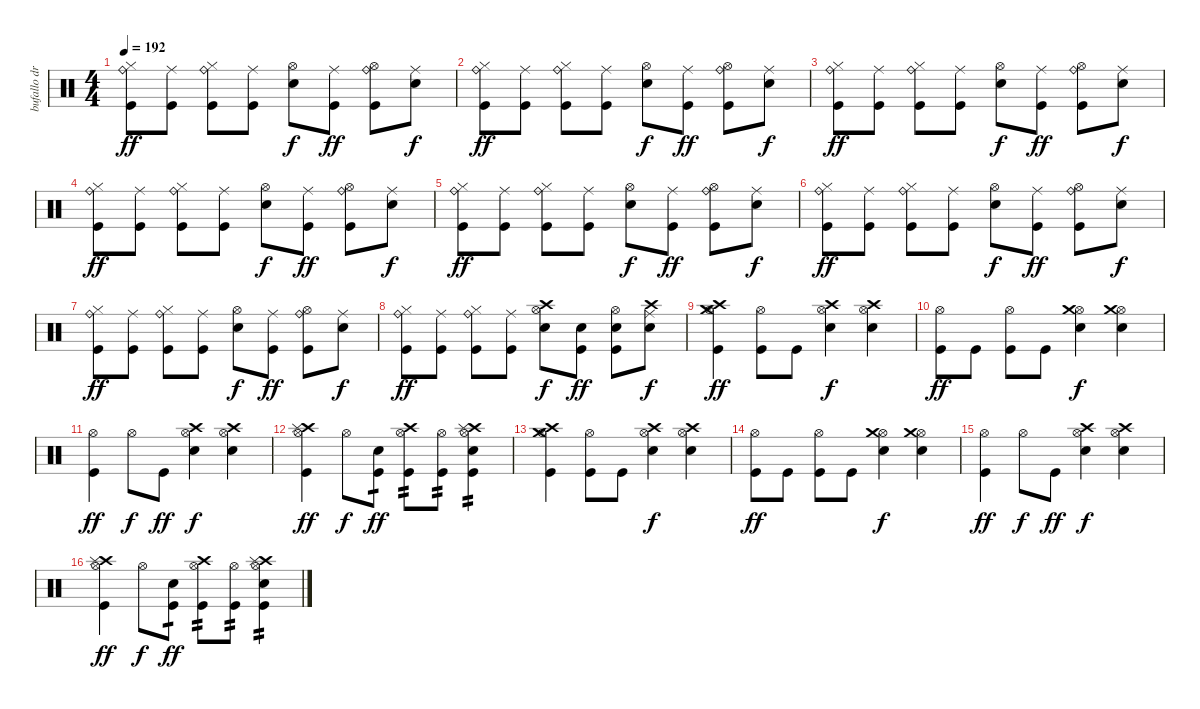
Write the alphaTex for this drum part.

\track ("bufallo drums" "bufallo dr") {instrument percussion}
\staff {score}
\articulation defaults
\ts (4 4)
\tempo 192
\clef neutral
\ks c
("Hi-Hat (closed)" "Ride (bell)" "Kick (hit)").8{dy ff} ("Ride (middle)" "Kick (hit)").8 ("Hi-Hat (closed)" "Ride (bell)" "Kick (hit)").8 ("Ride (middle)" "Kick (hit)").8 ("Hi-Hat (open)" "Electric Snare (hit)").8{dy f} ("Ride (middle)" "Kick (hit)").8{dy ff} ("Hi-Hat (open)" "Ride (bell)" "Kick (hit)").8 ("Ride (middle)" "Electric Snare (hit)").8{dy f} |
("Hi-Hat (closed)" "Ride (bell)" "Kick (hit)").8{dy ff} ("Ride (middle)" "Kick (hit)").8 ("Hi-Hat (closed)" "Ride (bell)" "Kick (hit)").8 ("Ride (middle)" "Kick (hit)").8 ("Hi-Hat (open)" "Electric Snare (hit)").8{dy f} ("Ride (middle)" "Kick (hit)").8{dy ff} ("Hi-Hat (open)" "Ride (bell)" "Kick (hit)").8 ("Ride (middle)" "Electric Snare (hit)").8{dy f} |
("Hi-Hat (closed)" "Ride (bell)" "Kick (hit)").8{dy ff} ("Ride (middle)" "Kick (hit)").8 ("Hi-Hat (closed)" "Ride (bell)" "Kick (hit)").8 ("Ride (middle)" "Kick (hit)").8 ("Hi-Hat (open)" "Electric Snare (hit)").8{dy f} ("Ride (middle)" "Kick (hit)").8{dy ff} ("Hi-Hat (open)" "Ride (bell)" "Kick (hit)").8 ("Ride (middle)" "Electric Snare (hit)").8{dy f} |
("Hi-Hat (closed)" "Ride (bell)" "Kick (hit)").8{dy ff} ("Ride (middle)" "Kick (hit)").8 ("Hi-Hat (closed)" "Ride (bell)" "Kick (hit)").8 ("Ride (middle)" "Kick (hit)").8 ("Hi-Hat (open)" "Electric Snare (hit)").8{dy f} ("Ride (middle)" "Kick (hit)").8{dy ff} ("Hi-Hat (open)" "Ride (bell)" "Kick (hit)").8 ("Ride (middle)" "Electric Snare (hit)").8{dy f} |
("Hi-Hat (closed)" "Ride (bell)" "Kick (hit)").8{dy ff} ("Ride (middle)" "Kick (hit)").8 ("Hi-Hat (closed)" "Ride (bell)" "Kick (hit)").8 ("Ride (middle)" "Kick (hit)").8 ("Hi-Hat (open)" "Electric Snare (hit)").8{dy f} ("Ride (middle)" "Kick (hit)").8{dy ff} ("Hi-Hat (open)" "Ride (bell)" "Kick (hit)").8 ("Ride (middle)" "Electric Snare (hit)").8{dy f} |
("Hi-Hat (closed)" "Ride (bell)" "Kick (hit)").8{dy ff} ("Ride (middle)" "Kick (hit)").8 ("Hi-Hat (closed)" "Ride (bell)" "Kick (hit)").8 ("Ride (middle)" "Kick (hit)").8 ("Hi-Hat (open)" "Electric Snare (hit)").8{dy f} ("Ride (middle)" "Kick (hit)").8{dy ff} ("Hi-Hat (open)" "Ride (bell)" "Kick (hit)").8 ("Ride (middle)" "Electric Snare (hit)").8{dy f} |
("Hi-Hat (closed)" "Ride (bell)" "Kick (hit)").8{dy ff} ("Ride (middle)" "Kick (hit)").8 ("Hi-Hat (closed)" "Ride (bell)" "Kick (hit)").8 ("Ride (middle)" "Kick (hit)").8 ("Hi-Hat (open)" "Electric Snare (hit)").8{dy f} ("Ride (middle)" "Kick (hit)").8{dy ff} ("Hi-Hat (open)" "Ride (bell)" "Kick (hit)").8 ("Ride (middle)" "Electric Snare (hit)").8{dy f} |
("Hi-Hat (closed)" "Ride (bell)" "Kick (hit)").8{dy ff} ("Ride (middle)" "Kick (hit)").8 ("Hi-Hat (closed)" "Ride (bell)" "Kick (hit)").8 ("Ride (middle)" "Kick (hit)").8 ("Hi-Hat (open)" "Electric Snare (hit)" "Crash high (hit)").8{dy f} ("Electric Snare (hit)" "Kick (hit)").8{dy ff} ("Hi-Hat (open)" "Electric Snare (hit)" "Kick (hit)").8 ("Ride (middle)" "Electric Snare (hit)" "Crash high (hit)").8{dy f} |
("Hi-Hat (open)" "Crash medium (hit)" "Crash high (hit)" "Kick (hit)").4{dy ff} ("Hi-Hat (open)" "Kick (hit)").8 "Kick (hit)".8 ("Hi-Hat (open)" "Electric Snare (hit)" "Crash high (hit)").4{dy f} ("Hi-Hat (open)" "Electric Snare (hit)" "Crash high (hit)").4 |
("Hi-Hat (open)" "Kick (hit)").8{dy ff} "Kick (hit)".8 ("Hi-Hat (open)" "Kick (hit)").8 "Kick (hit)".8 ("Hi-Hat (open)" "Electric Snare (hit)" "Crash medium (hit)").4{dy f} ("Hi-Hat (open)" "Electric Snare (hit)" "Crash medium (hit)").4 |
("Hi-Hat (open)" "Kick (hit)").4{dy ff} "Hi-Hat (open)".8{dy f} "Kick (hit)".8{dy ff} ("Hi-Hat (open)" "Electric Snare (hit)" "Crash high (hit)").4{dy f} ("Hi-Hat (open)" "Electric Snare (hit)" "Crash high (hit)").4 |
("Hi-Hat (open)" "Crash high (hit)" "Splash (hit)" "Kick (hit)").4{dy ff} "Hi-Hat (open)".8{dy f} ("Electric Snare (hit)" "Kick (hit)").8{tp 1 dy ff} ("Hi-Hat (open)" "Crash high (hit)" "Kick (hit)").8{tp 2} ("Hi-Hat (open)" "Kick (hit)").8{tp 2} ("Hi-Hat (open)" "Crash high (hit)" "Splash (hit)" "Electric Snare (hit)" "Kick (hit)").4{tp 2} |
("Hi-Hat (open)" "Crash medium (hit)" "Crash high (hit)" "Kick (hit)").4 ("Hi-Hat (open)" "Kick (hit)").8 "Kick (hit)".8 ("Hi-Hat (open)" "Electric Snare (hit)" "Crash high (hit)").4{dy f} ("Hi-Hat (open)" "Electric Snare (hit)" "Crash high (hit)").4 |
("Hi-Hat (open)" "Kick (hit)").8{dy ff} "Kick (hit)".8 ("Hi-Hat (open)" "Kick (hit)").8 "Kick (hit)".8 ("Hi-Hat (open)" "Electric Snare (hit)" "Crash medium (hit)").4{dy f} ("Hi-Hat (open)" "Electric Snare (hit)" "Crash medium (hit)").4 |
("Hi-Hat (open)" "Kick (hit)").4{dy ff} "Hi-Hat (open)".8{dy f} "Kick (hit)".8{dy ff} ("Hi-Hat (open)" "Electric Snare (hit)" "Crash high (hit)").4{dy f} ("Hi-Hat (open)" "Electric Snare (hit)" "Crash high (hit)").4 |
("Hi-Hat (open)" "Crash high (hit)" "Splash (hit)" "Kick (hit)").4{dy ff} "Hi-Hat (open)".8{dy f} ("Electric Snare (hit)" "Kick (hit)").8{tp 1 dy ff} ("Hi-Hat (open)" "Crash high (hit)" "Kick (hit)").8{tp 2} ("Hi-Hat (open)" "Kick (hit)").8{tp 2} ("Hi-Hat (open)" "Crash high (hit)" "Splash (hit)" "Electric Snare (hit)" "Kick (hit)").4{tp 2}
